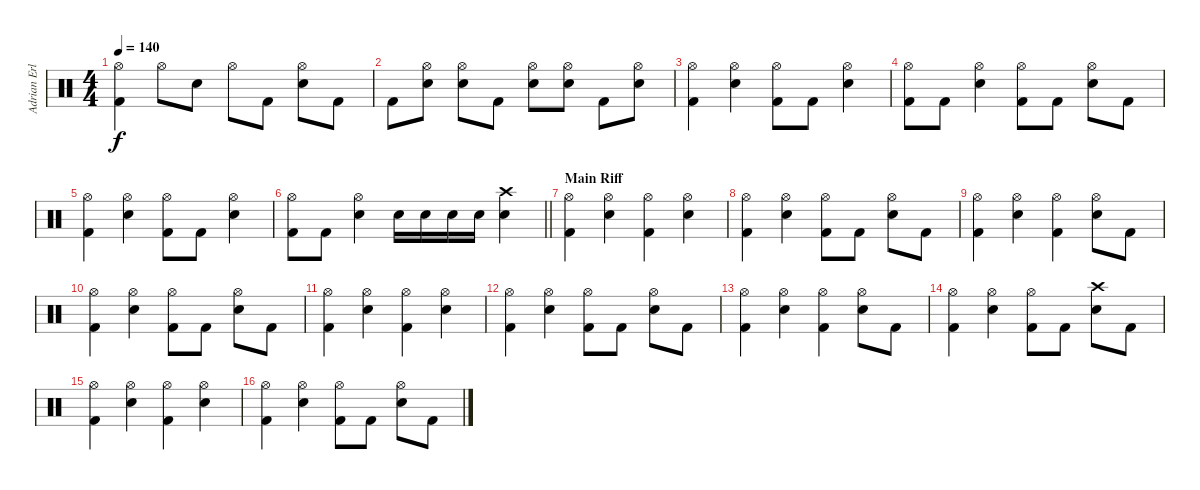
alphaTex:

\track ("Adrian Erlandsson" "Adrian Erl") {instrument percussion}
\staff {score}
\articulation defaults
\ts (4 4)
\tempo 140
\clef neutral
\ks c
("Hi-Hat (open)" "Kick (hit) 2").4{dy f} "Hi-Hat (open)".8 "Snare (hit) 2".8 "Hi-Hat (open)".8 "Kick (hit) 2".8 ("Hi-Hat (open)" "Snare (hit) 2").8 "Kick (hit) 2".8 |
"Kick (hit) 2".8 ("Hi-Hat (open)" "Snare (hit) 2").8 ("Hi-Hat (open)" "Snare (hit) 2").8 "Kick (hit) 2".8 ("Hi-Hat (open)" "Snare (hit) 2").8 ("Hi-Hat (open)" "Snare (hit) 2").8 "Kick (hit) 2".8 ("Hi-Hat (open)" "Snare (hit) 2").8 |
("Hi-Hat (open)" "Kick (hit) 2").4 ("Hi-Hat (open)" "Snare (hit) 2").4 ("Hi-Hat (open)" "Kick (hit) 2").8 "Kick (hit) 2".8 ("Hi-Hat (open)" "Snare (hit) 2").4 |
("Hi-Hat (open)" "Kick (hit) 2").8 "Kick (hit) 2".8 ("Hi-Hat (open)" "Snare (hit) 2").4 ("Hi-Hat (open)" "Kick (hit) 2").8 "Kick (hit) 2".8 ("Hi-Hat (open)" "Snare (hit) 2").8 "Kick (hit) 2".8 |
("Hi-Hat (open)" "Kick (hit) 2").4 ("Hi-Hat (open)" "Snare (hit) 2").4 ("Hi-Hat (open)" "Kick (hit) 2").8 "Kick (hit) 2".8 ("Hi-Hat (open)" "Snare (hit) 2").4 |
\barLineRight lightlight
("Hi-Hat (open)" "Kick (hit) 2").8 "Kick (hit) 2".8 ("Hi-Hat (open)" "Snare (hit) 2").4 "Snare (hit) 2".16 "Snare (hit) 2".16 "Snare (hit) 2".16 "Snare (hit) 2".16 ("Crash high (hit)" "Snare (hit) 2").4 |
\section ("" "Main Riff")
("Hi-Hat (open)" "Kick (hit) 2").4 ("Hi-Hat (open)" "Snare (hit) 2").4 ("Hi-Hat (open)" "Kick (hit) 2").4 ("Hi-Hat (open)" "Snare (hit) 2").4 |
("Hi-Hat (open)" "Kick (hit) 2").4 ("Hi-Hat (open)" "Snare (hit) 2").4 ("Hi-Hat (open)" "Kick (hit) 2").8 "Kick (hit) 2".8 ("Hi-Hat (open)" "Snare (hit) 2").8 "Kick (hit) 2".8 |
("Hi-Hat (open)" "Kick (hit) 2").4 ("Hi-Hat (open)" "Snare (hit) 2").4 ("Hi-Hat (open)" "Kick (hit) 2").4 ("Hi-Hat (open)" "Snare (hit) 2").8 "Kick (hit) 2".8 |
("Hi-Hat (open)" "Kick (hit) 2").4 ("Hi-Hat (open)" "Snare (hit) 2").4 ("Hi-Hat (open)" "Kick (hit) 2").8 "Kick (hit) 2".8 ("Hi-Hat (open)" "Snare (hit) 2").8 "Kick (hit) 2".8 |
("Hi-Hat (open)" "Kick (hit) 2").4 ("Hi-Hat (open)" "Snare (hit) 2").4 ("Hi-Hat (open)" "Kick (hit) 2").4 ("Hi-Hat (open)" "Snare (hit) 2").4 |
("Hi-Hat (open)" "Kick (hit) 2").4 ("Hi-Hat (open)" "Snare (hit) 2").4 ("Hi-Hat (open)" "Kick (hit) 2").8 "Kick (hit) 2".8 ("Hi-Hat (open)" "Snare (hit) 2").8 "Kick (hit) 2".8 |
("Hi-Hat (open)" "Kick (hit) 2").4 ("Hi-Hat (open)" "Snare (hit) 2").4 ("Hi-Hat (open)" "Kick (hit) 2").4 ("Hi-Hat (open)" "Snare (hit) 2").8 "Kick (hit) 2".8 |
("Hi-Hat (open)" "Kick (hit) 2").4 ("Hi-Hat (open)" "Snare (hit) 2").4 ("Hi-Hat (open)" "Kick (hit) 2").8 "Kick (hit) 2".8 ("Crash high (hit)" "Snare (hit) 2").8 "Kick (hit) 2".8 |
("Hi-Hat (open)" "Kick (hit) 2").4 ("Hi-Hat (open)" "Snare (hit) 2").4 ("Hi-Hat (open)" "Kick (hit) 2").4 ("Hi-Hat (open)" "Snare (hit) 2").4 |
("Hi-Hat (open)" "Kick (hit) 2").4 ("Hi-Hat (open)" "Snare (hit) 2").4 ("Hi-Hat (open)" "Kick (hit) 2").8 "Kick (hit) 2".8 ("Hi-Hat (open)" "Snare (hit) 2").8 "Kick (hit) 2".8
